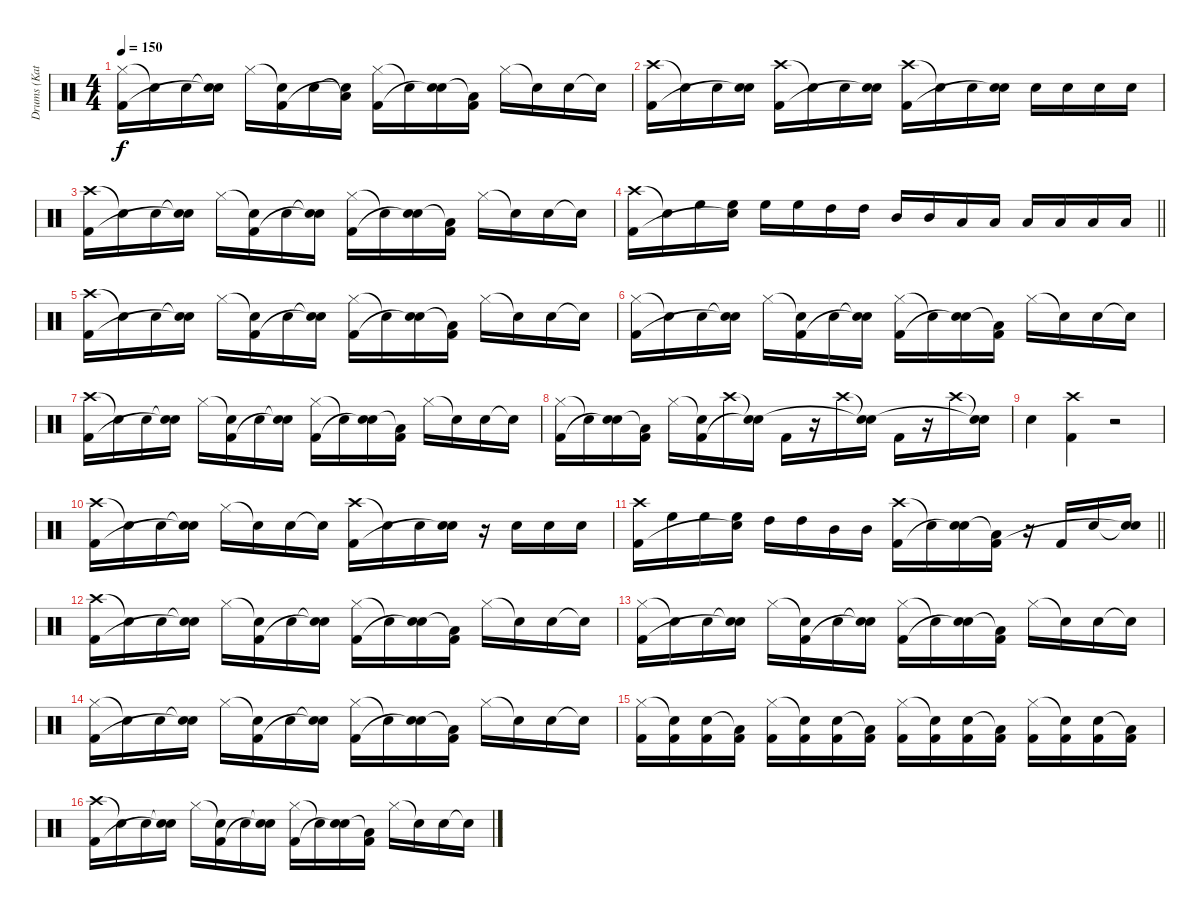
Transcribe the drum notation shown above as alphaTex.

\track ("Drums (Katsuji)" "Drums (Kat") {instrument percussion}
\staff {score}
\articulation defaults
\ts (4 4)
\tempo 150
\clef neutral
\ks c
("Hi-Hat (closed)" "Kick (hit) 2").16{dy f} "Snare (hit)"{t}.16 "Snare (hit) 2".16 ("Snare (hit)"{t} "Snare (hit)"{t}).16 "Hi-Hat (closed)".16 ("Snare (hit)"{t} "Kick (hit) 2").16 "Snare (hit) 2".16 ("Low Floor Tom (hit)"{t} "Snare (hit)"{t}).16 ("Hi-Hat (closed)" "Kick (hit) 2").16 "Snare (hit)"{t}.16 ("Snare (hit) 2" "Snare (hit)"{t}).16 ("Low Floor Tom (hit)"{t} "Kick (hit) 2").16 "Hi-Hat (closed)".16 "Snare (hit)"{t}.16 "Snare (hit) 2".16 "Snare (hit)"{t}.16 |
("Crash high (hit)" "Kick (hit) 2").16 "Snare (hit)"{t}.16 "Snare (hit) 2".16 ("Snare (hit) 2" "Snare (hit)"{t}).16 ("Crash high (hit)" "Kick (hit) 2").16 "Snare (hit)"{t}.16 "Snare (hit) 2".16 ("Snare (hit) 2" "Snare (hit)"{t}).16 ("Crash high (hit)" "Kick (hit) 2").16 "Snare (hit)"{t}.16 "Snare (hit) 2".16 ("Snare (hit) 2" "Snare (hit)"{t}).16 "Snare (hit) 2".16 "Snare (hit) 2".16 "Snare (hit) 2".16 "Snare (hit) 2".16 |
("Crash high (hit)" "Kick (hit) 2").16 "Snare (hit)"{t}.16 "Snare (hit) 2".16 ("Snare (hit)"{t} "Snare (hit)"{t}).16 "Hi-Hat (closed)".16 ("Snare (hit)"{t} "Kick (hit) 2").16 "Snare (hit) 2".16 ("Snare (hit)"{t} "Snare (hit)"{t}).16 ("Hi-Hat (closed)" "Kick (hit) 2").16 "Snare (hit)"{t}.16 ("Snare (hit) 2" "Snare (hit)"{t}).16 ("Low Floor Tom (hit)"{t} "Kick (hit) 2").16 "Hi-Hat (closed)".16 "Snare (hit)"{t}.16 "Snare (hit) 2".16 "Snare (hit)"{t}.16 |
\barLineRight lightlight
("Crash high (hit)" "Kick (hit) 2").16 "Snare (hit)"{t}.16 "High Floor Tom (hit)".16 ("High Floor Tom (hit)" "Snare (hit)"{t}).16 "High Floor Tom (hit)".16 "High Floor Tom (hit)".16 "High Tom (hit)".16 "High Tom (hit)".16 "Mid Tom (hit)".16 "Mid Tom (hit)".16 "Low Tom (hit)".16 "Low Tom (hit)".16 "Low Tom (hit)".16 "Low Tom (hit)".16 "Low Tom (hit)".16 "Low Tom (hit)".16 |
("Crash high (hit)" "Kick (hit) 2").16 "Snare (hit)"{t}.16 "Snare (hit) 2".16 ("Snare (hit)"{t} "Snare (hit)"{t}).16 "Hi-Hat (closed)".16 ("Snare (hit)"{t} "Kick (hit) 2").16 "Snare (hit) 2".16 ("Snare (hit)"{t} "Snare (hit)"{t}).16 ("Hi-Hat (closed)" "Kick (hit) 2").16 "Snare (hit)"{t}.16 ("Snare (hit) 2" "Snare (hit)"{t}).16 ("Low Floor Tom (hit)"{t} "Kick (hit) 2").16 "Hi-Hat (closed)".16 "Snare (hit)"{t}.16 "Snare (hit) 2".16 "Snare (hit)"{t}.16 |
("Hi-Hat (closed)" "Kick (hit) 2").16 "Snare (hit)"{t}.16 "Snare (hit) 2".16 ("Snare (hit)"{t} "Snare (hit)"{t}).16 "Hi-Hat (closed)".16 ("Snare (hit)"{t} "Kick (hit) 2").16 "Snare (hit) 2".16 ("Snare (hit)"{t} "Snare (hit)"{t}).16 ("Hi-Hat (closed)" "Kick (hit) 2").16 "Snare (hit)"{t}.16 ("Snare (hit) 2" "Snare (hit)"{t}).16 ("Low Floor Tom (hit)"{t} "Kick (hit) 2").16 "Hi-Hat (closed)".16 "Snare (hit)"{t}.16 "Snare (hit) 2".16 "Snare (hit)"{t}.16 |
("Crash high (hit)" "Kick (hit) 2").16 "Snare (hit)"{t}.16 "Snare (hit) 2".16 ("Snare (hit)"{t} "Snare (hit)"{t}).16 "Hi-Hat (closed)".16 ("Snare (hit)"{t} "Kick (hit) 2").16 "Snare (hit) 2".16 ("Snare (hit)"{t} "Snare (hit)"{t}).16 ("Hi-Hat (closed)" "Kick (hit) 2").16 "Snare (hit)"{t}.16 ("Snare (hit) 2" "Snare (hit)"{t}).16 ("Low Floor Tom (hit)"{t} "Kick (hit) 2").16 "Hi-Hat (closed)".16 "Snare (hit)"{t}.16 "Snare (hit) 2".16 "Snare (hit)"{t}.16 |
("Hi-Hat (closed)" "Kick (hit) 2").16 "Snare (hit)"{t}.16 ("Snare (hit) 2" "Snare (hit)"{t}).16 ("Low Floor Tom (hit)"{t} "Kick (hit) 2").16 "Hi-Hat (closed)".16 ("Snare (hit)"{t} "Kick (hit) 2").16 "Crash high (hit)".16 ("Snare (hit)"{t} "Snare (hit)"{t}).16 "Kick (hit) 2".16 r.16 "Crash high (hit)".16 ("Snare (hit)"{t} "Snare (hit)"{t}).16 "Kick (hit) 2".16 r.16 "Crash high (hit)".16 ("Snare (hit)"{t} "Snare (hit)"{t}).16 |
"Snare (hit) 2".4 ("Crash high (hit)" "Kick (hit) 2").4 r.2 |
("Crash high (hit)" "Kick (hit) 2").16 "Snare (hit)"{t}.16 "Snare (hit) 2".16 ("Snare (hit)"{t} "Snare (hit)"{t}).16 "Hi-Hat (closed)".16 "Snare (hit)"{t}.16 "Snare (hit) 2".16 "Snare (hit)"{t}.16 ("Crash high (hit)" "Kick (hit) 2").16 "Snare (hit)"{t}.16 "Snare (hit) 2".16 ("Snare (hit) 2" "Snare (hit)"{t}).16 r.16 "Snare (hit) 2".16 "Snare (hit) 2".16 "Snare (hit) 2".16 |
\barLineRight lightlight
("Crash high (hit)" "Kick (hit) 2").16 "High Floor Tom (hit)".16 "High Floor Tom (hit)".16 ("High Floor Tom (hit)" "Snare (hit)"{t}).16 "High Tom (hit)".16 "High Tom (hit)".16 "Mid Tom (hit)".16 "Mid Tom (hit)".16 ("Crash high (hit)" "Kick (hit) 2").16 "Snare (hit)"{t}.16 ("Snare (hit) 2" "Snare (hit)"{t}).16 ("Low Floor Tom (hit)"{t} "Kick (hit) 2").16 r.16 "Kick (hit) 2".16 "Snare (hit) 2".16 ("Snare (hit)"{t} "Snare (hit)"{t}).16 |
("Crash high (hit)" "Kick (hit) 2").16 "Snare (hit)"{t}.16 "Snare (hit) 2".16 ("Snare (hit)"{t} "Snare (hit)"{t}).16 "Hi-Hat (closed)".16 ("Snare (hit)"{t} "Kick (hit) 2").16 "Snare (hit) 2".16 ("Snare (hit)"{t} "Snare (hit)"{t}).16 ("Hi-Hat (closed)" "Kick (hit) 2").16 "Snare (hit)"{t}.16 ("Snare (hit) 2" "Snare (hit)"{t}).16 ("Low Floor Tom (hit)"{t} "Kick (hit) 2").16 "Hi-Hat (closed)".16 "Snare (hit)"{t}.16 "Snare (hit) 2".16 "Snare (hit)"{t}.16 |
("Hi-Hat (closed)" "Kick (hit) 2").16 "Snare (hit)"{t}.16 "Snare (hit) 2".16 ("Snare (hit)"{t} "Snare (hit)"{t}).16 "Hi-Hat (closed)".16 ("Snare (hit)"{t} "Kick (hit) 2").16 "Snare (hit) 2".16 ("Snare (hit)"{t} "Snare (hit)"{t}).16 ("Hi-Hat (closed)" "Kick (hit) 2").16 "Snare (hit)"{t}.16 ("Snare (hit) 2" "Snare (hit)"{t}).16 ("Low Floor Tom (hit)"{t} "Kick (hit) 2").16 "Hi-Hat (closed)".16 "Snare (hit)"{t}.16 "Snare (hit) 2".16 "Snare (hit)"{t}.16 |
("Hi-Hat (closed)" "Kick (hit) 2").16 "Snare (hit)"{t}.16 "Snare (hit) 2".16 ("Snare (hit)"{t} "Snare (hit)"{t}).16 "Hi-Hat (closed)".16 ("Snare (hit)"{t} "Kick (hit) 2").16 "Snare (hit) 2".16 ("Snare (hit)"{t} "Snare (hit)"{t}).16 ("Hi-Hat (closed)" "Kick (hit) 2").16 "Snare (hit)"{t}.16 ("Snare (hit) 2" "Snare (hit)"{t}).16 ("Low Floor Tom (hit)"{t} "Kick (hit) 2").16 "Hi-Hat (closed)".16 "Snare (hit)"{t}.16 "Snare (hit) 2".16 "Snare (hit)"{t}.16 |
("Hi-Hat (closed)" "Kick (hit) 2").16 ("Snare (hit)"{t} "Kick (hit) 2").16 ("Snare (hit) 2" "Kick (hit) 2").16 ("Low Floor Tom (hit)"{t} "Kick (hit) 2").16 ("Hi-Hat (closed)" "Kick (hit) 2").16 ("Snare (hit)"{t} "Kick (hit) 2").16 ("Snare (hit) 2" "Kick (hit) 2").16 ("Low Floor Tom (hit)"{t} "Kick (hit) 2").16 ("Hi-Hat (closed)" "Kick (hit) 2").16 ("Snare (hit)"{t} "Kick (hit) 2").16 ("Snare (hit) 2" "Kick (hit) 2").16 ("Low Floor Tom (hit)"{t} "Kick (hit) 2").16 ("Hi-Hat (closed)" "Kick (hit) 2").16 ("Snare (hit)"{t} "Kick (hit) 2").16 ("Snare (hit) 2" "Kick (hit) 2").16 ("Low Floor Tom (hit)"{t} "Kick (hit) 2").16 |
("Crash high (hit)" "Kick (hit) 2").16 "Snare (hit)"{t}.16 "Snare (hit) 2".16 ("Snare (hit)"{t} "Snare (hit)"{t}).16 "Hi-Hat (closed)".16 ("Snare (hit)"{t} "Kick (hit) 2").16 "Snare (hit) 2".16 ("Snare (hit)"{t} "Snare (hit)"{t}).16 ("Hi-Hat (closed)" "Kick (hit) 2").16 "Snare (hit)"{t}.16 ("Snare (hit) 2" "Snare (hit)"{t}).16 ("Low Floor Tom (hit)"{t} "Kick (hit) 2").16 "Hi-Hat (closed)".16 "Snare (hit)"{t}.16 "Snare (hit) 2".16 "Snare (hit)"{t}.16
